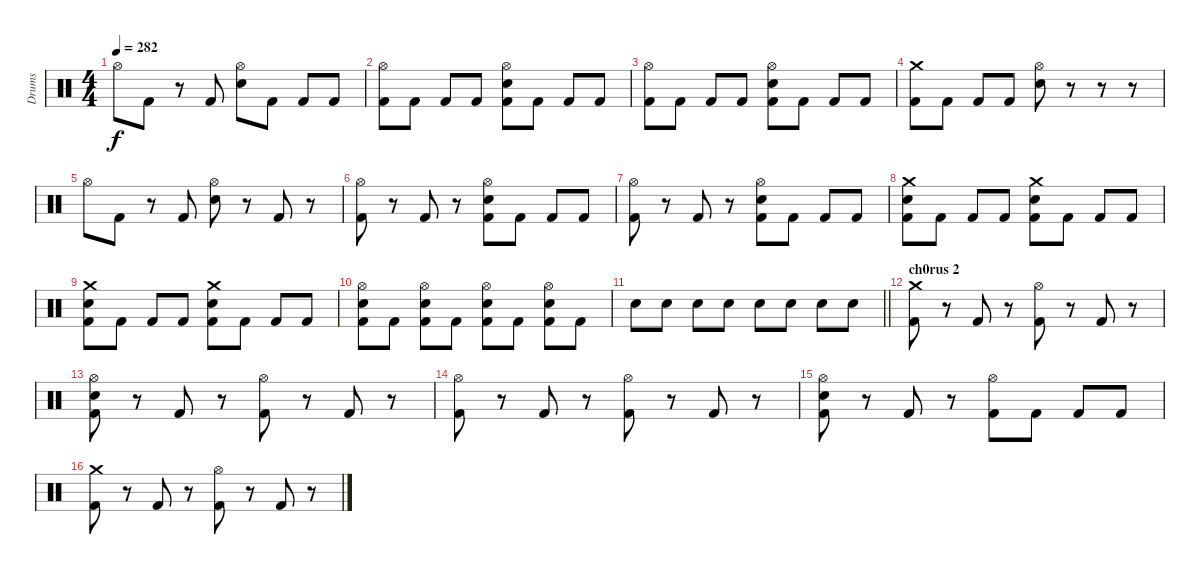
\track ("Drums" "Drums") {instrument percussion}
\staff {score}
\articulation defaults
\ts (4 4)
\tempo 282
\clef neutral
\ks c "Hi-Hat (open)".8{dy f} "Kick (hit) 2".8
r.8 "Kick (hit) 2".8 ("Hi-Hat (open)" "Snare (hit) 2").8 "Kick (hit) 2".8 "Kick (hit) 2".8 "Kick (hit) 2".8 |
("Hi-Hat (open)" "Kick (hit) 2").8 "Kick (hit) 2".8 "Kick (hit) 2".8 "Kick (hit) 2".8 ("Hi-Hat (open)" "Snare (hit) 2" "Kick (hit) 2").8 "Kick (hit) 2".8 "Kick (hit) 2".8 "Kick (hit) 2".8 |
("Hi-Hat (open)" "Kick (hit) 2").8 "Kick (hit) 2".8 "Kick (hit) 2".8 "Kick (hit) 2".8 ("Hi-Hat (open)" "Snare (hit) 2" "Kick (hit) 2").8 "Kick (hit) 2".8 "Kick (hit) 2".8 "Kick (hit) 2".8 |
("Crash medium (hit)" "Kick (hit) 2").8 "Kick (hit) 2".8 "Kick (hit) 2".8 "Kick (hit) 2".8 ("Hi-Hat (open)" "Snare (hit) 2").8 r.8 r.8 r.8 |
"Hi-Hat (open)".8 "Kick (hit) 2".8 r.8 "Kick (hit) 2".8 ("Hi-Hat (open)" "Snare (hit) 2").8 r.8 "Kick (hit) 2".8 r.8 |
("Hi-Hat (open)" "Kick (hit) 2").8 r.8 "Kick (hit) 2".8 r.8 ("Hi-Hat (open)" "Snare (hit) 2" "Kick (hit) 2").8 "Kick (hit) 2".8 "Kick (hit) 2".8 "Kick (hit) 2".8 |
("Hi-Hat (open)" "Kick (hit) 2").8 r.8 "Kick (hit) 2".8 r.8 ("Hi-Hat (open)" "Snare (hit) 2" "Kick (hit) 2").8 "Kick (hit) 2".8 "Kick (hit) 2".8 "Kick (hit) 2".8 |
("Crash medium (hit)" "Snare (hit) 2" "Kick (hit) 2").8 "Kick (hit) 2".8 "Kick (hit) 2".8 "Kick (hit) 2".8 ("Crash medium (hit)" "Snare (hit) 2" "Kick (hit) 2").8 "Kick (hit) 2".8 "Kick (hit) 2".8 "Kick (hit) 2".8 |
("Crash medium (hit)" "Snare (hit) 2" "Kick (hit) 2").8 "Kick (hit) 2".8 "Kick (hit) 2".8 "Kick (hit) 2".8 ("Crash medium (hit)" "Snare (hit) 2" "Kick (hit) 2").8 "Kick (hit) 2".8 "Kick (hit) 2".8 "Kick (hit) 2".8 |
("Hi-Hat (open)" "Snare (hit) 2" "Kick (hit) 2").8 "Kick (hit) 2".8 ("Hi-Hat (open)" "Snare (hit) 2" "Kick (hit) 2").8 "Kick (hit) 2".8 ("Hi-Hat (open)" "Snare (hit) 2" "Kick (hit) 2").8 "Kick (hit) 2".8 ("Hi-Hat (open)" "Snare (hit) 2" "Kick (hit) 2").8 "Kick (hit) 2".8 |
\barLineRight lightlight "Snare (hit) 2".8 "Snare (hit) 2".8 "Snare (hit) 2".8 "Snare (hit) 2".8 "Snare (hit) 2".8 "Snare (hit) 2".8 "Snare (hit) 2".8 "Snare (hit) 2".8
|
\section ("" "ch0rus 2")
("Crash medium (hit)" "Kick (hit) 2").8 r.8 "Kick (hit) 2".8 r.8 ("Hi-Hat (open)" "Kick (hit) 2").8 r.8 "Kick (hit) 2".8 r.8 |
("Hi-Hat (open)" "Snare (hit) 2" "Kick (hit) 2").8 r.8 "Kick (hit) 2".8 r.8 ("Hi-Hat (open)" "Kick (hit) 2").8 r.8 "Kick (hit) 2".8 r.8 |
("Hi-Hat (open)" "Kick (hit) 2").8 r.8 "Kick (hit) 2".8 r.8 ("Hi-Hat (open)" "Kick (hit) 2").8 r.8 "Kick (hit) 2".8 r.8 |
("Hi-Hat (open)" "Snare (hit) 2" "Kick (hit) 2").8 r.8 "Kick (hit) 2".8 r.8 ("Hi-Hat (open)" "Kick (hit) 2").8 "Kick (hit) 2".8 "Kick (hit) 2".8 "Kick (hit) 2".8 |
("Crash medium (hit)" "Kick (hit) 2").8 r.8 "Kick (hit) 2".8 r.8 ("Hi-Hat (open)" "Kick (hit) 2").8 r.8 "Kick (hit) 2".8 r.8
